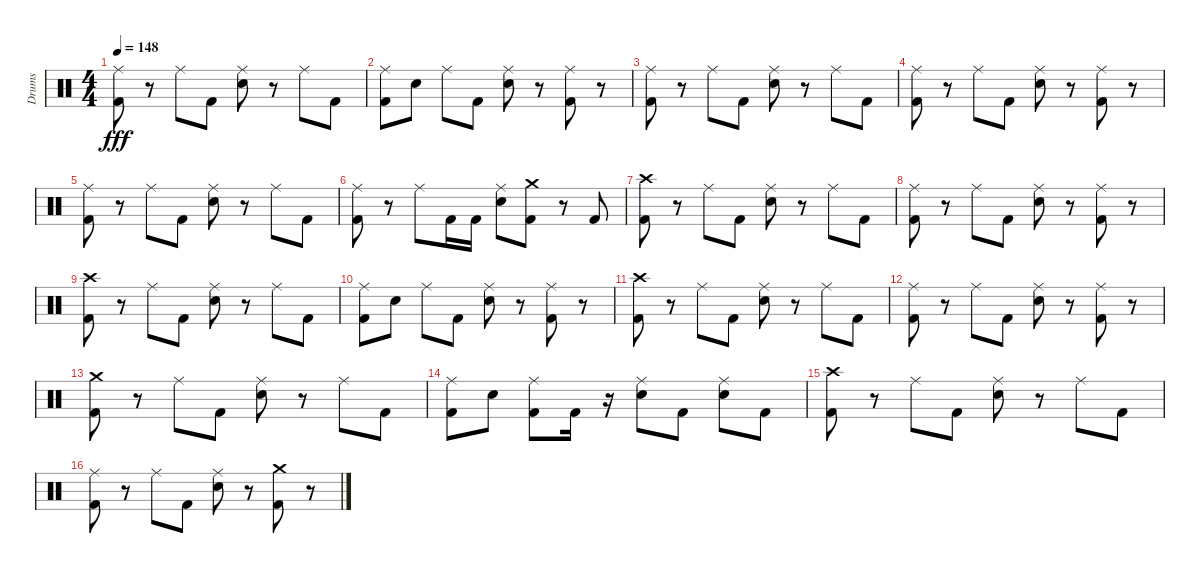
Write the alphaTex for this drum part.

\track ("Drums" "Drums") {instrument percussion}
\staff {score}
\articulation defaults
\ts (4 4)
\tempo 148
\clef neutral
\ks c
("Ride (middle)" "Kick (hit) 2").8{dy fff} r.8 "Ride (middle)".8 "Kick (hit) 2".8 ("Ride (middle)" "Electric Snare (hit)").8 r.8 "Ride (middle)".8 "Kick (hit) 2".8 |
("Ride (middle)" "Kick (hit) 2").8 "Snare (hit) 2".8 "Ride (middle)".8 "Kick (hit) 2".8 ("Ride (middle)" "Electric Snare (hit)").8 r.8 ("Ride (middle)" "Kick (hit) 2").8 r.8 |
("Ride (middle)" "Kick (hit) 2").8 r.8 "Ride (middle)".8 "Kick (hit) 2".8 ("Ride (middle)" "Electric Snare (hit)").8 r.8 "Ride (middle)".8 "Kick (hit) 2".8 |
("Ride (middle)" "Kick (hit) 2").8 r.8 "Ride (middle)".8 "Kick (hit) 2".8 ("Ride (middle)" "Electric Snare (hit)").8 r.8 ("Ride (middle)" "Kick (hit) 2").8 r.8 |
("Ride (middle)" "Kick (hit) 2").8 r.8 "Ride (middle)".8 "Kick (hit) 2".8 ("Ride (middle)" "Electric Snare (hit)").8 r.8 "Ride (middle)".8 "Kick (hit) 2".8 |
("Ride (middle)" "Kick (hit) 2").8 r.8 "Ride (middle)".8 "Kick (hit) 2".16 "Kick (hit) 2".16 ("Ride (middle)" "Electric Snare (hit)").8 ("Crash medium (hit)" "Kick (hit) 2").8 r.8 "Kick (hit) 2".8 |
("Crash high (hit)" "Kick (hit) 2").8 r.8 "Ride (middle)".8 "Kick (hit) 2".8 ("Ride (middle)" "Electric Snare (hit)").8 r.8 "Ride (middle)".8 "Kick (hit) 2".8 |
("Ride (middle)" "Kick (hit) 2").8 r.8 "Ride (middle)".8 "Kick (hit) 2".8 ("Ride (middle)" "Electric Snare (hit)").8 r.8 ("Ride (middle)" "Kick (hit) 2").8 r.8 |
("Crash high (hit)" "Kick (hit) 2").8 r.8 "Ride (middle)".8 "Kick (hit) 2".8 ("Ride (middle)" "Electric Snare (hit)").8 r.8 "Ride (middle)".8 "Kick (hit) 2".8 |
("Ride (middle)" "Kick (hit) 2").8 "Snare (hit) 2".8 "Ride (middle)".8 "Kick (hit) 2".8 ("Ride (middle)" "Electric Snare (hit)").8 r.8 ("Ride (middle)" "Kick (hit) 2").8 r.8 |
("Crash high (hit)" "Kick (hit) 2").8 r.8 "Ride (middle)".8 "Kick (hit) 2".8 ("Ride (middle)" "Electric Snare (hit)").8 r.8 "Ride (middle)".8 "Kick (hit) 2".8 |
("Ride (middle)" "Kick (hit) 2").8 r.8 "Ride (middle)".8 "Kick (hit) 2".8 ("Ride (middle)" "Electric Snare (hit)").8 r.8 ("Ride (middle)" "Kick (hit) 2").8 r.8 |
("Crash medium (hit)" "Kick (hit) 2").8 r.8 "Ride (middle)".8 "Kick (hit) 2".8 ("Ride (middle)" "Electric Snare (hit)").8 r.8 "Ride (middle)".8 "Kick (hit) 2".8 |
("Ride (middle)" "Kick (hit) 2").8 "Electric Snare (hit)".8 ("Ride (middle)" "Kick (hit) 2").8 "Kick (hit) 2".16 r.16 ("Ride (middle)" "Electric Snare (hit)").8 "Kick (hit) 2".8 ("Ride (middle)" "Electric Snare (hit)").8 "Kick (hit) 2".8 |
("Crash high (hit)" "Kick (hit) 2").8 r.8 "Ride (middle)".8 "Kick (hit) 2".8 ("Ride (middle)" "Electric Snare (hit)").8 r.8 "Ride (middle)".8 "Kick (hit) 2".8 |
("Ride (middle)" "Kick (hit) 2").8 r.8 "Ride (middle)".8 "Kick (hit) 2".8 ("Ride (middle)" "Electric Snare (hit)").8 r.8 ("Crash medium (hit)" "Kick (hit) 2").8 r.8
